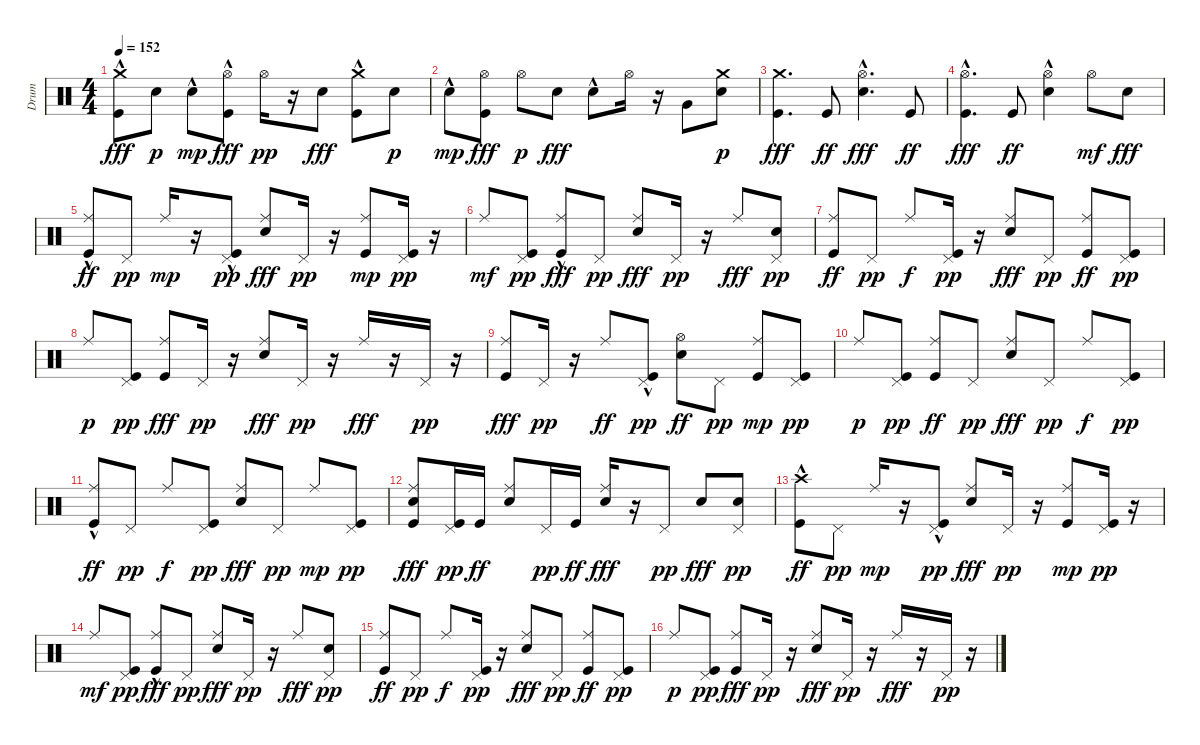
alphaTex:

\track ("Drum" "Drum") {instrument percussion}
\staff {score}
\articulation defaults
\ts (4 4)
\tempo 152
\clef neutral
\ks c
("Kick (hit)"{hac} "Crash medium (hit)").8{dy fff} "Electric Snare (hit)".8{dy p} "Electric Snare (hit)"{hac}.8{dy mp} ("Kick (hit)"{hac} "Hi-Hat (open)").8{dy fff} "Hi-Hat (open)".16{dy pp} r.16 "Electric Snare (hit)".8{dy fff} ("Kick (hit)"{hac} "Crash medium (hit)").8 "Electric Snare (hit)".8{dy p} |
"Electric Snare (hit)"{hac}.8{dy mp} ("Kick (hit)" "Hi-Hat (open)").8{dy fff} "Hi-Hat (open)".8{dy p} "Electric Snare (hit)".8{dy fff} "Electric Snare (hit)"{hac}.8 "Hi-Hat (open)".16 r.16 "Very Low Tom (hit)".8 ("Electric Snare (hit)" "Crash medium (hit)").8{dy p} |
("Kick (hit)" "Crash medium (hit)").4{d dy fff} "Kick (hit)".8{dy ff} ("Electric Snare (hit)"{hac} "Hi-Hat (open)").4{d dy fff} "Kick (hit)".8{dy ff} |
("Kick (hit)"{hac} "Hi-Hat (open)").4{d dy fff} "Kick (hit)".8{dy ff} ("Electric Snare (hit)"{hac} "Hi-Hat (open)").4 "Hi-Hat (open)".8{dy mf} "Electric Snare (hit)".8{dy fff} |
("Kick (hit)"{hac} "Ride (middle)").8{dy ff} "Pedal Hi-Hat (hit)".8{dy pp} "Ride (middle)".16{dy mp} r.16 ("Kick (hit)"{hac} "Pedal Hi-Hat (hit)").8{dy pp} ("Electric Snare (hit)" "Ride (middle)").8{dy fff} "Pedal Hi-Hat (hit)".16{dy pp} r.16 ("Kick (hit)" "Ride (middle)").8{dy mp} ("Kick (hit)" "Pedal Hi-Hat (hit)").16{dy pp} r.16 |
"Ride (middle)".8{dy mf} ("Kick (hit)" "Pedal Hi-Hat (hit)").8{dy pp} ("Kick (hit)"{hac} "Ride (middle)").8{dy fff} "Pedal Hi-Hat (hit)".8{dy pp} ("Electric Snare (hit)" "Ride (middle)").8{dy fff} "Pedal Hi-Hat (hit)".16{dy pp} r.16 "Ride (middle)".8{dy fff} ("Electric Snare (hit)" "Pedal Hi-Hat (hit)").8{dy pp} |
("Kick (hit)" "Ride (middle)").8{dy ff} "Pedal Hi-Hat (hit)".8{dy pp} "Ride (middle)".8{dy f} ("Kick (hit)" "Pedal Hi-Hat (hit)").16{dy pp} r.16 ("Electric Snare (hit)" "Ride (middle)").8{dy fff} "Pedal Hi-Hat (hit)".8{dy pp} ("Kick (hit)" "Ride (middle)").8{dy ff} ("Kick (hit)" "Pedal Hi-Hat (hit)").8{dy pp} |
"Ride (middle)".8{dy p} ("Kick (hit)" "Pedal Hi-Hat (hit)").8{dy pp} ("Kick (hit)" "Ride (middle)").8{dy fff} "Pedal Hi-Hat (hit)".16{dy pp} r.16 ("Electric Snare (hit)" "Ride (middle)").8{dy fff} "Pedal Hi-Hat (hit)".16{dy pp} r.16 "Ride (middle)".16{dy fff} r.16 "Pedal Hi-Hat (hit)".16{dy pp} r.16 |
("Kick (hit)" "Ride (middle)").8{dy fff} "Pedal Hi-Hat (hit)".16{dy pp} r.16 "Ride (middle)".8{dy ff} ("Kick (hit)"{hac} "Pedal Hi-Hat (hit)").8{dy pp} ("Electric Snare (hit)" "Hi-Hat (open)").8{dy ff} "Pedal Hi-Hat (hit)".8{dy pp} ("Kick (hit)" "Ride (middle)").8{dy mp} ("Kick (hit)" "Pedal Hi-Hat (hit)").8{dy pp} |
"Ride (middle)".8{dy p} ("Kick (hit)" "Pedal Hi-Hat (hit)").8{dy pp} ("Kick (hit)" "Ride (middle)").8{dy ff} "Pedal Hi-Hat (hit)".8{dy pp} ("Electric Snare (hit)" "Ride (middle)").8{dy fff} "Pedal Hi-Hat (hit)".8{dy pp} "Ride (middle)".8{dy f} ("Kick (hit)" "Pedal Hi-Hat (hit)").8{dy pp} |
("Kick (hit)"{hac} "Ride (middle)").8{dy ff} "Pedal Hi-Hat (hit)".8{dy pp} "Ride (middle)".8{dy f} ("Kick (hit)" "Pedal Hi-Hat (hit)").8{dy pp} ("Electric Snare (hit)" "Ride (middle)").8{dy fff} "Pedal Hi-Hat (hit)".8{dy pp} "Ride (middle)".8{dy mp} ("Kick (hit)" "Pedal Hi-Hat (hit)").8{dy pp} |
("Kick (hit)" "Electric Snare (hit)" "Ride (middle)").8{dy fff} ("Kick (hit)" "Pedal Hi-Hat (hit)").16{dy pp} "Kick (hit)".16{dy ff} ("Electric Snare (hit)" "Ride (middle)").8 "Pedal Hi-Hat (hit)".16{dy pp} "Kick (hit)".16{dy ff} ("Electric Snare (hit)" "Ride (middle)").16{dy fff} r.16 "Pedal Hi-Hat (hit)".8{dy pp} "Electric Snare (hit)".8{dy fff} ("Electric Snare (hit)" "Pedal Hi-Hat (hit)").8{dy pp} |
("Kick (hit)"{hac} "Crash high (hit)").8{dy ff} "Pedal Hi-Hat (hit)".8{dy pp} "Ride (middle)".16{dy mp} r.16 ("Kick (hit)"{hac} "Pedal Hi-Hat (hit)").8{dy pp} ("Electric Snare (hit)" "Ride (middle)").8{dy fff} "Pedal Hi-Hat (hit)".16{dy pp} r.16 ("Kick (hit)" "Ride (middle)").8{dy mp} ("Kick (hit)" "Pedal Hi-Hat (hit)").16{dy pp} r.16 |
"Ride (middle)".8{dy mf} ("Kick (hit)" "Pedal Hi-Hat (hit)").8{dy pp} ("Kick (hit)"{hac} "Ride (middle)").8{dy fff} "Pedal Hi-Hat (hit)".8{dy pp} ("Electric Snare (hit)" "Ride (middle)").8{dy fff} "Pedal Hi-Hat (hit)".16{dy pp} r.16 "Ride (middle)".8{dy fff} ("Electric Snare (hit)" "Pedal Hi-Hat (hit)").8{dy pp} |
("Kick (hit)" "Ride (middle)").8{dy ff} "Pedal Hi-Hat (hit)".8{dy pp} "Ride (middle)".8{dy f} ("Kick (hit)" "Pedal Hi-Hat (hit)").16{dy pp} r.16 ("Electric Snare (hit)" "Ride (middle)").8{dy fff} "Pedal Hi-Hat (hit)".8{dy pp} ("Kick (hit)" "Ride (middle)").8{dy ff} ("Kick (hit)" "Pedal Hi-Hat (hit)").8{dy pp} |
"Ride (middle)".8{dy p} ("Kick (hit)" "Pedal Hi-Hat (hit)").8{dy pp} ("Kick (hit)" "Ride (middle)").8{dy fff} "Pedal Hi-Hat (hit)".16{dy pp} r.16 ("Electric Snare (hit)" "Ride (middle)").8{dy fff} "Pedal Hi-Hat (hit)".16{dy pp} r.16 "Ride (middle)".16{dy fff} r.16 "Pedal Hi-Hat (hit)".16{dy pp} r.16
